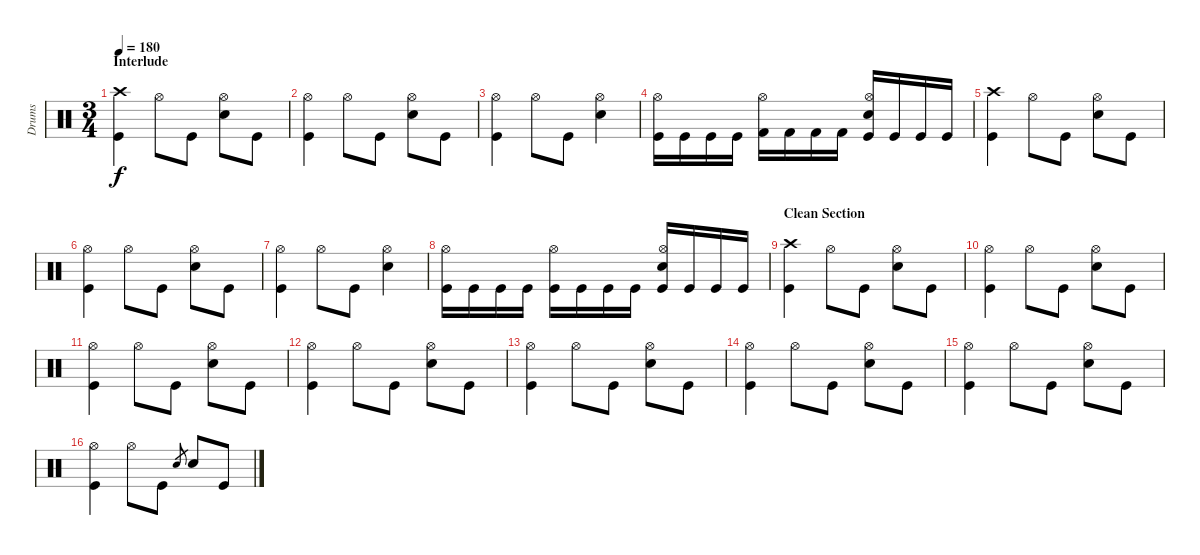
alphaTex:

\track ("Drums" "Drums") {instrument percussion}
\staff {score}
\articulation defaults
\ts (3 4)
\section ("" "Interlude")
\tempo 180
\clef neutral
\ks c
("Crash high (hit)" "Kick (hit)").4{dy f} "Hi-Hat (open)".8 "Kick (hit)".8 ("Hi-Hat (open)" "Snare (hit) 2").8 "Kick (hit)".8 |
("Hi-Hat (open)" "Kick (hit)").4 "Hi-Hat (open)".8 "Kick (hit)".8 ("Hi-Hat (open)" "Snare (hit) 2").8 "Kick (hit)".8 |
("Hi-Hat (open)" "Kick (hit)").4 "Hi-Hat (open)".8 "Kick (hit)".8 ("Hi-Hat (open)" "Snare (hit) 2").4 |
("Hi-Hat (open)" "Kick (hit)").16 "Kick (hit)".16 "Kick (hit)".16 "Kick (hit)".16 ("Hi-Hat (open)" "Kick (hit) 2").16 "Kick (hit) 2".16 "Kick (hit) 2".16 "Kick (hit) 2".16 ("Hi-Hat (open)" "Snare (hit) 2" "Kick (hit)").16 "Kick (hit)".16 "Kick (hit)".16 "Kick (hit)".16 |
("Crash high (hit)" "Kick (hit)").4 "Hi-Hat (open)".8 "Kick (hit)".8 ("Hi-Hat (open)" "Snare (hit) 2").8 "Kick (hit)".8 |
("Hi-Hat (open)" "Kick (hit)").4 "Hi-Hat (open)".8 "Kick (hit)".8 ("Hi-Hat (open)" "Snare (hit) 2").8 "Kick (hit)".8 |
("Hi-Hat (open)" "Kick (hit)").4 "Hi-Hat (open)".8 "Kick (hit)".8 ("Hi-Hat (open)" "Snare (hit) 2").4 |
("Hi-Hat (open)" "Kick (hit)").16 "Kick (hit)".16 "Kick (hit)".16 "Kick (hit)".16 ("Hi-Hat (open)" "Kick (hit)").16 "Kick (hit)".16 "Kick (hit)".16 "Kick (hit)".16 ("Hi-Hat (open)" "Snare (hit) 2" "Kick (hit)").16 "Kick (hit)".16 "Kick (hit)".16 "Kick (hit)".16 |
\section ("" "Clean Section")
("Crash high (hit)" "Kick (hit)").4 "Hi-Hat (open)".8 "Kick (hit)".8 ("Hi-Hat (open)" "Snare (hit) 2").8 "Kick (hit)".8 |
("Hi-Hat (open)" "Kick (hit)").4 "Hi-Hat (open)".8 "Kick (hit)".8 ("Hi-Hat (open)" "Snare (hit) 2").8 "Kick (hit)".8 |
("Hi-Hat (open)" "Kick (hit)").4 "Hi-Hat (open)".8 "Kick (hit)".8 ("Hi-Hat (open)" "Snare (hit) 2").8 "Kick (hit)".8 |
("Hi-Hat (open)" "Kick (hit)").4 "Hi-Hat (open)".8 "Kick (hit)".8 ("Hi-Hat (open)" "Snare (hit) 2").8 "Kick (hit)".8 |
("Hi-Hat (open)" "Kick (hit)").4 "Hi-Hat (open)".8 "Kick (hit)".8 ("Hi-Hat (open)" "Snare (hit) 2").8 "Kick (hit)".8 |
("Hi-Hat (open)" "Kick (hit)").4 "Hi-Hat (open)".8 "Kick (hit)".8 ("Hi-Hat (open)" "Snare (hit) 2").8 "Kick (hit)".8 |
("Hi-Hat (open)" "Kick (hit)").4 "Hi-Hat (open)".8 "Kick (hit)".8 ("Hi-Hat (open)" "Snare (hit) 2").8 "Kick (hit)".8 |
("Hi-Hat (open)" "Kick (hit)").4 "Hi-Hat (open)".8 "Kick (hit)".8 "Snare (hit) 2".8{gr} "Snare (hit) 2".8 "Kick (hit)".8
